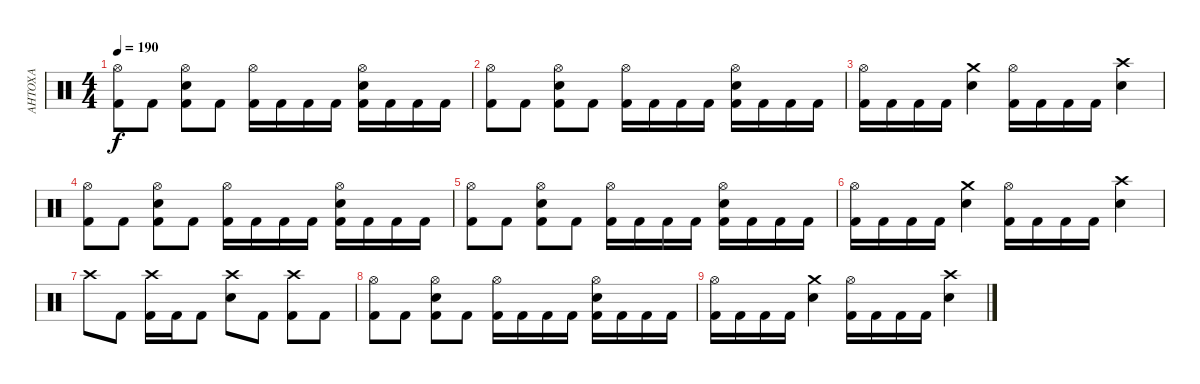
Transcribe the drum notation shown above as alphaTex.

\track ("АНТОХА" "АНТОХА") {instrument percussion}
\staff {score}
\articulation defaults
\ts (4 4)
\tempo 190
\clef neutral
\ks c
("Hi-Hat (open)" "Kick (hit) 2").8{dy f} "Kick (hit) 2".8 ("Hi-Hat (open)" "Electric Snare (hit)" "Kick (hit) 2").8 "Kick (hit) 2".8 ("Hi-Hat (open)" "Kick (hit) 2").16 "Kick (hit) 2".16 "Kick (hit) 2".16 "Kick (hit) 2".16 ("Hi-Hat (open)" "Electric Snare (hit)" "Kick (hit) 2").16 "Kick (hit) 2".16 "Kick (hit) 2".16 "Kick (hit) 2".16 |
("Hi-Hat (open)" "Kick (hit) 2").8 "Kick (hit) 2".8 ("Hi-Hat (open)" "Electric Snare (hit)" "Kick (hit) 2").8 "Kick (hit) 2".8 ("Hi-Hat (open)" "Kick (hit) 2").16 "Kick (hit) 2".16 "Kick (hit) 2".16 "Kick (hit) 2".16 ("Hi-Hat (open)" "Electric Snare (hit)" "Kick (hit) 2").16 "Kick (hit) 2".16 "Kick (hit) 2".16 "Kick (hit) 2".16 |
("Hi-Hat (open)" "Kick (hit) 2").16 "Kick (hit) 2".16 "Kick (hit) 2".16 "Kick (hit) 2".16 ("Crash medium (hit)" "Electric Snare (hit)").4 ("Hi-Hat (open)" "Kick (hit) 2").16 "Kick (hit) 2".16 "Kick (hit) 2".16 "Kick (hit) 2".16 ("Crash high (hit)" "Electric Snare (hit)").4 |
("Hi-Hat (open)" "Kick (hit) 2").8 "Kick (hit) 2".8 ("Hi-Hat (open)" "Electric Snare (hit)" "Kick (hit) 2").8 "Kick (hit) 2".8 ("Hi-Hat (open)" "Kick (hit) 2").16 "Kick (hit) 2".16 "Kick (hit) 2".16 "Kick (hit) 2".16 ("Hi-Hat (open)" "Electric Snare (hit)" "Kick (hit) 2").16 "Kick (hit) 2".16 "Kick (hit) 2".16 "Kick (hit) 2".16 |
("Hi-Hat (open)" "Kick (hit) 2").8 "Kick (hit) 2".8 ("Hi-Hat (open)" "Electric Snare (hit)" "Kick (hit) 2").8 "Kick (hit) 2".8 ("Hi-Hat (open)" "Kick (hit) 2").16 "Kick (hit) 2".16 "Kick (hit) 2".16 "Kick (hit) 2".16 ("Hi-Hat (open)" "Electric Snare (hit)" "Kick (hit) 2").16 "Kick (hit) 2".16 "Kick (hit) 2".16 "Kick (hit) 2".16 |
("Hi-Hat (open)" "Kick (hit) 2").16 "Kick (hit) 2".16 "Kick (hit) 2".16 "Kick (hit) 2".16 ("Crash medium (hit)" "Electric Snare (hit)").4 ("Hi-Hat (open)" "Kick (hit) 2").16 "Kick (hit) 2".16 "Kick (hit) 2".16 "Kick (hit) 2".16 ("Crash high (hit)" "Electric Snare (hit)").4 |
"Crash high (hit)".8 "Kick (hit) 2".8 ("Crash high (hit)" "Kick (hit) 2").16 "Kick (hit) 2".16 "Kick (hit) 2".8 ("Crash high (hit)" "Electric Snare (hit)").8 "Kick (hit) 2".8 ("Crash high (hit)" "Kick (hit) 2").8 "Kick (hit) 2".8 |
("Hi-Hat (open)" "Kick (hit) 2").8 "Kick (hit) 2".8 ("Hi-Hat (open)" "Electric Snare (hit)" "Kick (hit) 2").8 "Kick (hit) 2".8 ("Hi-Hat (open)" "Kick (hit) 2").16 "Kick (hit) 2".16 "Kick (hit) 2".16 "Kick (hit) 2".16 ("Hi-Hat (open)" "Electric Snare (hit)" "Kick (hit) 2").16 "Kick (hit) 2".16 "Kick (hit) 2".16 "Kick (hit) 2".16 |
("Hi-Hat (open)" "Kick (hit) 2").16 "Kick (hit) 2".16 "Kick (hit) 2".16 "Kick (hit) 2".16 ("Crash medium (hit)" "Electric Snare (hit)").4 ("Hi-Hat (open)" "Kick (hit) 2").16 "Kick (hit) 2".16 "Kick (hit) 2".16 "Kick (hit) 2".16 ("Crash high (hit)" "Electric Snare (hit)").4
